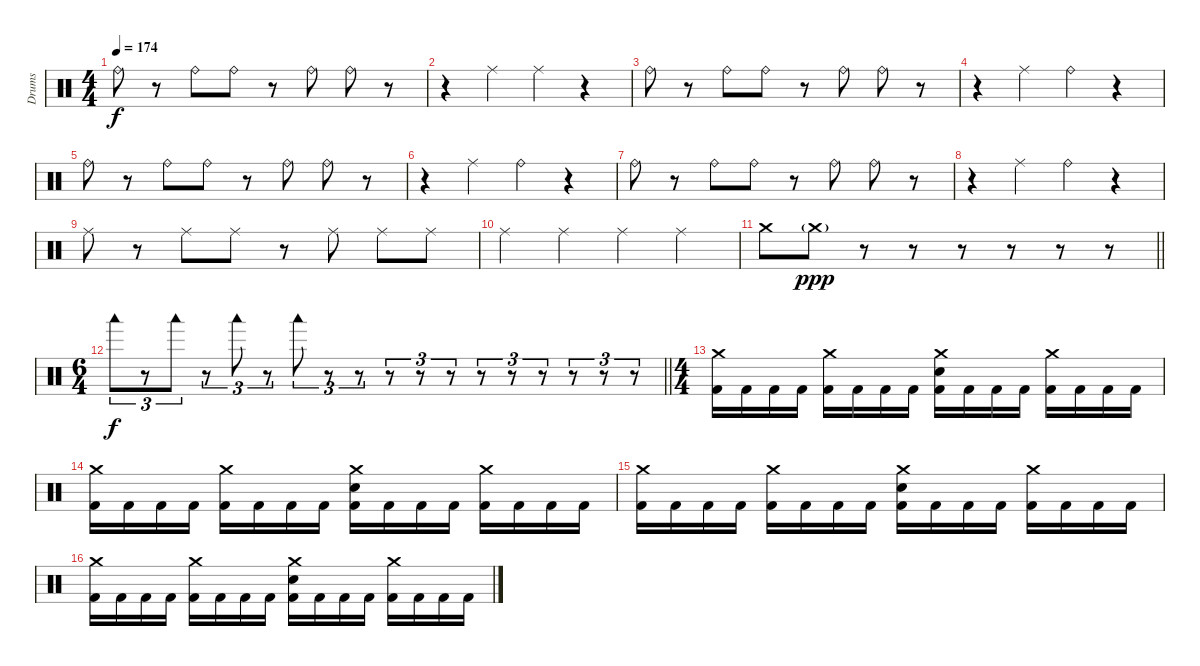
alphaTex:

\track ("Drums" "Drums") {instrument percussion}
\staff {score}
\articulation defaults
\ts (4 4)
\tempo 174
\clef neutral
\ks c "Ride (bell)".8{dy f}
r.8 "Ride (bell)".8 "Ride (bell)".8 r.8 "Ride (bell)".8 "Ride (bell)".8 r.8 |
r.4 "Ride (middle)".4 "Ride (middle)".4 r.4 |
"Ride (bell)".8 r.8 "Ride (bell)".8 "Ride (bell)".8 r.8 "Ride (bell)".8 "Ride (bell)".8 r.8 |
r.4 "Ride (middle)".4 "Ride (bell)".4 r.4 |
"Ride (bell)".8 r.8 "Ride (bell)".8 "Ride (bell)".8 r.8 "Ride (bell)".8 "Ride (bell)".8 r.8 |
r.4 "Ride (middle)".4 "Ride (bell)".4 r.4 |
"Ride (bell)".8 r.8 "Ride (bell)".8 "Ride (bell)".8 r.8 "Ride (bell)".8 "Ride (bell)".8 r.8 |
r.4 "Ride (middle)".4 "Ride (bell)".4 r.4 |
"Ride (middle)".8 r.8 "Ride (middle)".8 "Ride (middle)".8 r.8 "Ride (middle)".8 "Ride (middle)".8 "Ride (middle)".8 |
"Ride (middle)".4 "Ride (middle)".4 "Ride (middle)".4 "Ride (middle)".4 |
\barLineRight lightlight "Crash medium (hit)".8 "Crash medium (hit)"{g}.8{dy ppp}
r.8 r.8 r.8 r.8 r.8 r.8 |
\ts (6 4)
\barLineRight lightlight "Woodblock low (hit)".8{tu (3 2) dy f volume 13}
r.8{tu (3 2)} "Woodblock low (hit)".8{tu (3 2)} r.8{tu (3 2)} "Woodblock low (hit)".8{tu (3 2)} r.8{tu (3 2)} "Woodblock low (hit)".8{tu (3 2)} r.8{tu (3 2)} r.8{tu (3 2)} r.8{tu (3 2)} r.8{tu (3 2)} r.8{tu (3 2)} r.8{tu (3 2)} r.8{tu (3 2)} r.8{tu (3 2)} r.8{tu (3 2)} r.8{tu (3 2)} r.8{tu (3 2)} |
\ts (4 4)
("Crash medium (hit)" "Kick (hit) 2").16 "Kick (hit) 2".16 "Kick (hit) 2".16 "Kick (hit) 2".16 ("Crash medium (hit)" "Kick (hit) 2").16 "Kick (hit) 2".16 "Kick (hit) 2".16 "Kick (hit) 2".16 ("Crash medium (hit)" "Electric Snare (hit)" "Kick (hit) 2").16 "Kick (hit) 2".16 "Kick (hit) 2".16 "Kick (hit) 2".16 ("Crash medium (hit)" "Kick (hit) 2").16 "Kick (hit) 2".16 "Kick (hit) 2".16 "Kick (hit) 2".16 |
("Crash medium (hit)" "Kick (hit) 2").16 "Kick (hit) 2".16 "Kick (hit) 2".16 "Kick (hit) 2".16 ("Crash medium (hit)" "Kick (hit) 2").16 "Kick (hit) 2".16 "Kick (hit) 2".16 "Kick (hit) 2".16 ("Crash medium (hit)" "Electric Snare (hit)" "Kick (hit) 2").16 "Kick (hit) 2".16 "Kick (hit) 2".16 "Kick (hit) 2".16 ("Crash medium (hit)" "Kick (hit) 2").16 "Kick (hit) 2".16 "Kick (hit) 2".16 "Kick (hit) 2".16 |
("Crash medium (hit)" "Kick (hit) 2").16 "Kick (hit) 2".16 "Kick (hit) 2".16 "Kick (hit) 2".16 ("Crash medium (hit)" "Kick (hit) 2").16 "Kick (hit) 2".16 "Kick (hit) 2".16 "Kick (hit) 2".16 ("Crash medium (hit)" "Electric Snare (hit)" "Kick (hit) 2").16 "Kick (hit) 2".16 "Kick (hit) 2".16 "Kick (hit) 2".16 ("Crash medium (hit)" "Kick (hit) 2").16 "Kick (hit) 2".16 "Kick (hit) 2".16 "Kick (hit) 2".16 |
("Crash medium (hit)" "Kick (hit) 2").16 "Kick (hit) 2".16 "Kick (hit) 2".16 "Kick (hit) 2".16 ("Crash medium (hit)" "Kick (hit) 2").16 "Kick (hit) 2".16 "Kick (hit) 2".16 "Kick (hit) 2".16 ("Crash medium (hit)" "Electric Snare (hit)" "Kick (hit) 2").16 "Kick (hit) 2".16 "Kick (hit) 2".16 "Kick (hit) 2".16 ("Crash medium (hit)" "Kick (hit) 2").16 "Kick (hit) 2".16 "Kick (hit) 2".16 "Kick (hit) 2".16
